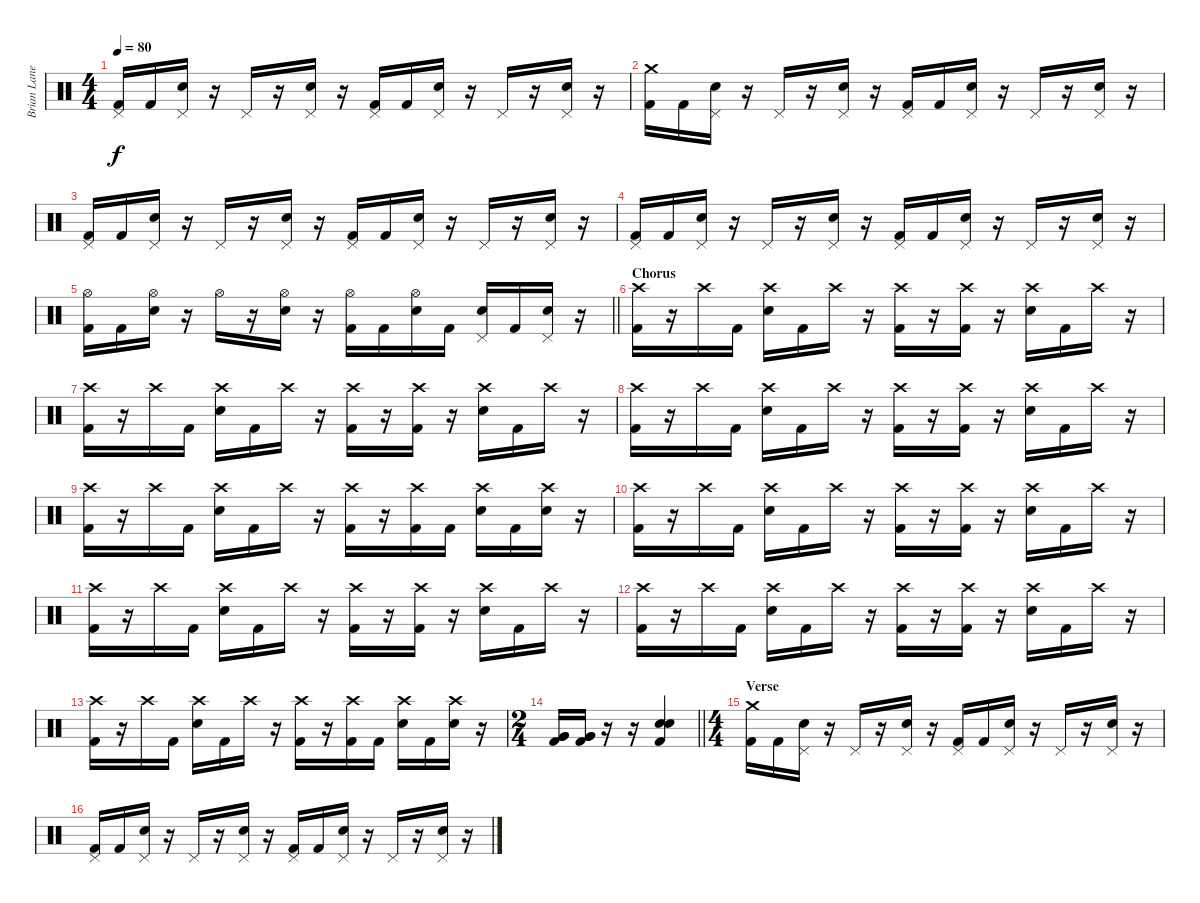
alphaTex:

\track ("Brian Lane" "Brian Lane") {instrument percussion}
\staff {score}
\articulation defaults
\ts (4 4)
\tempo 80
\clef neutral
\ks c
("Pedal Hi-Hat (hit)" "Kick (hit) 2").16{dy f} "Kick (hit) 2".16 ("Pedal Hi-Hat (hit)" "Electric Snare (hit)").16 r.16 "Pedal Hi-Hat (hit)".16 r.16 ("Pedal Hi-Hat (hit)" "Electric Snare (hit)").16 r.16 ("Pedal Hi-Hat (hit)" "Kick (hit) 2").16 "Kick (hit) 2".16 ("Pedal Hi-Hat (hit)" "Electric Snare (hit)").16 r.16 "Pedal Hi-Hat (hit)".16 r.16 ("Pedal Hi-Hat (hit)" "Electric Snare (hit)").16 r.16 |
("Crash medium (hit)" "Kick (hit) 2").16 "Kick (hit) 2".16 ("Pedal Hi-Hat (hit)" "Electric Snare (hit)").16 r.16 "Pedal Hi-Hat (hit)".16 r.16 ("Pedal Hi-Hat (hit)" "Electric Snare (hit)").16 r.16 ("Pedal Hi-Hat (hit)" "Kick (hit) 2").16 "Kick (hit) 2".16 ("Pedal Hi-Hat (hit)" "Electric Snare (hit)").16 r.16 "Pedal Hi-Hat (hit)".16 r.16 ("Pedal Hi-Hat (hit)" "Electric Snare (hit)").16 r.16 |
("Pedal Hi-Hat (hit)" "Kick (hit) 2").16 "Kick (hit) 2".16 ("Pedal Hi-Hat (hit)" "Electric Snare (hit)").16 r.16 "Pedal Hi-Hat (hit)".16 r.16 ("Pedal Hi-Hat (hit)" "Electric Snare (hit)").16 r.16 ("Pedal Hi-Hat (hit)" "Kick (hit) 2").16 "Kick (hit) 2".16 ("Pedal Hi-Hat (hit)" "Electric Snare (hit)").16 r.16 "Pedal Hi-Hat (hit)".16 r.16 ("Pedal Hi-Hat (hit)" "Electric Snare (hit)").16 r.16 |
("Pedal Hi-Hat (hit)" "Kick (hit) 2").16 "Kick (hit) 2".16 ("Pedal Hi-Hat (hit)" "Electric Snare (hit)").16 r.16 "Pedal Hi-Hat (hit)".16 r.16 ("Pedal Hi-Hat (hit)" "Electric Snare (hit)").16 r.16 ("Pedal Hi-Hat (hit)" "Kick (hit) 2").16 "Kick (hit) 2".16 ("Pedal Hi-Hat (hit)" "Electric Snare (hit)").16 r.16 "Pedal Hi-Hat (hit)".16 r.16 ("Pedal Hi-Hat (hit)" "Electric Snare (hit)").16 r.16 |
\barLineRight lightlight
("Hi-Hat (open)" "Kick (hit) 2").16 "Kick (hit) 2".16 ("Hi-Hat (open)" "Electric Snare (hit)").16 r.16 "Hi-Hat (open)".16 r.16 ("Hi-Hat (open)" "Electric Snare (hit)").16 r.16 ("Hi-Hat (open)" "Kick (hit) 2").16 "Kick (hit) 2".16 ("Hi-Hat (open)" "Electric Snare (hit)").16 "Kick (hit) 2".16 ("Pedal Hi-Hat (hit)" "Electric Snare (hit)").16 "Kick (hit) 2".16 ("Pedal Hi-Hat (hit)" "Electric Snare (hit)").16 r.16 |
\section ("" "Chorus")
("Crash high (hit)" "Kick (hit) 2").16 r.16 "Crash high (hit)".16 "Kick (hit) 2".16 ("Crash high (hit)" "Electric Snare (hit)").16 "Kick (hit) 2".16 "Crash high (hit)".16 r.16 ("Crash high (hit)" "Kick (hit) 2").16 r.16 ("Crash high (hit)" "Kick (hit) 2").16 r.16 ("Crash high (hit)" "Electric Snare (hit)").16 "Kick (hit) 2".16 "Crash high (hit)".16 r.16 |
("Crash high (hit)" "Kick (hit) 2").16 r.16 "Crash high (hit)".16 "Kick (hit) 2".16 ("Crash high (hit)" "Electric Snare (hit)").16 "Kick (hit) 2".16 "Crash high (hit)".16 r.16 ("Crash high (hit)" "Kick (hit) 2").16 r.16 ("Crash high (hit)" "Kick (hit) 2").16 r.16 ("Crash high (hit)" "Electric Snare (hit)").16 "Kick (hit) 2".16 "Crash high (hit)".16 r.16 |
("Crash high (hit)" "Kick (hit) 2").16 r.16 "Crash high (hit)".16 "Kick (hit) 2".16 ("Crash high (hit)" "Electric Snare (hit)").16 "Kick (hit) 2".16 "Crash high (hit)".16 r.16 ("Crash high (hit)" "Kick (hit) 2").16 r.16 ("Crash high (hit)" "Kick (hit) 2").16 r.16 ("Crash high (hit)" "Electric Snare (hit)").16 "Kick (hit) 2".16 "Crash high (hit)".16 r.16 |
("Crash high (hit)" "Kick (hit) 2").16 r.16 "Crash high (hit)".16 "Kick (hit) 2".16 ("Crash high (hit)" "Electric Snare (hit)").16 "Kick (hit) 2".16 "Crash high (hit)".16 r.16 ("Crash high (hit)" "Kick (hit) 2").16 r.16 ("Crash high (hit)" "Kick (hit) 2").16 "Kick (hit) 2".16 ("Crash high (hit)" "Electric Snare (hit)").16 "Kick (hit) 2".16 ("Crash high (hit)" "Electric Snare (hit)").16 r.16 |
("Crash high (hit)" "Kick (hit) 2").16 r.16 "Crash high (hit)".16 "Kick (hit) 2".16 ("Crash high (hit)" "Electric Snare (hit)").16 "Kick (hit) 2".16 "Crash high (hit)".16 r.16 ("Crash high (hit)" "Kick (hit) 2").16 r.16 ("Crash high (hit)" "Kick (hit) 2").16 r.16 ("Crash high (hit)" "Electric Snare (hit)").16 "Kick (hit) 2".16 "Crash high (hit)".16 r.16 |
("Crash high (hit)" "Kick (hit) 2").16 r.16 "Crash high (hit)".16 "Kick (hit) 2".16 ("Crash high (hit)" "Electric Snare (hit)").16 "Kick (hit) 2".16 "Crash high (hit)".16 r.16 ("Crash high (hit)" "Kick (hit) 2").16 r.16 ("Crash high (hit)" "Kick (hit) 2").16 r.16 ("Crash high (hit)" "Electric Snare (hit)").16 "Kick (hit) 2".16 "Crash high (hit)".16 r.16 |
("Crash high (hit)" "Kick (hit) 2").16 r.16 "Crash high (hit)".16 "Kick (hit) 2".16 ("Crash high (hit)" "Electric Snare (hit)").16 "Kick (hit) 2".16 "Crash high (hit)".16 r.16 ("Crash high (hit)" "Kick (hit) 2").16 r.16 ("Crash high (hit)" "Kick (hit) 2").16 r.16 ("Crash high (hit)" "Electric Snare (hit)").16 "Kick (hit) 2".16 "Crash high (hit)".16 r.16 |
("Crash high (hit)" "Kick (hit) 2").16 r.16 "Crash high (hit)".16 "Kick (hit) 2".16 ("Crash high (hit)" "Electric Snare (hit)").16 "Kick (hit) 2".16 "Crash high (hit)".16 r.16 ("Crash high (hit)" "Kick (hit) 2").16 r.16 ("Crash high (hit)" "Kick (hit) 2").16 "Kick (hit) 2".16 ("Crash high (hit)" "Electric Snare (hit)").16 "Kick (hit) 2".16 ("Crash high (hit)" "Electric Snare (hit)").16 r.16 |
\ts (2 4)
\barLineRight lightlight
("Kick (hit) 2" "Very Low Tom (hit)" "Very Low Tom (hit)").16 ("Kick (hit) 2" "Very Low Tom (hit)" "Very Low Tom (hit)").16 r.16 r.16 ("Kick (hit) 2" "Electric Snare (hit)" "Electric Snare (hit)").4 |
\ts (4 4)
\section ("" "Verse")
("Crash medium (hit)" "Kick (hit) 2").16 "Kick (hit) 2".16 ("Pedal Hi-Hat (hit)" "Electric Snare (hit)").16 r.16 "Pedal Hi-Hat (hit)".16 r.16 ("Pedal Hi-Hat (hit)" "Electric Snare (hit)").16 r.16 ("Pedal Hi-Hat (hit)" "Kick (hit) 2").16 "Kick (hit) 2".16 ("Pedal Hi-Hat (hit)" "Electric Snare (hit)").16 r.16 "Pedal Hi-Hat (hit)".16 r.16 ("Pedal Hi-Hat (hit)" "Electric Snare (hit)").16 r.16 |
("Pedal Hi-Hat (hit)" "Kick (hit) 2").16 "Kick (hit) 2".16 ("Pedal Hi-Hat (hit)" "Electric Snare (hit)").16 r.16 "Pedal Hi-Hat (hit)".16 r.16 ("Pedal Hi-Hat (hit)" "Electric Snare (hit)").16 r.16 ("Pedal Hi-Hat (hit)" "Kick (hit) 2").16 "Kick (hit) 2".16 ("Pedal Hi-Hat (hit)" "Electric Snare (hit)").16 r.16 "Pedal Hi-Hat (hit)".16 r.16 ("Pedal Hi-Hat (hit)" "Electric Snare (hit)").16 r.16
